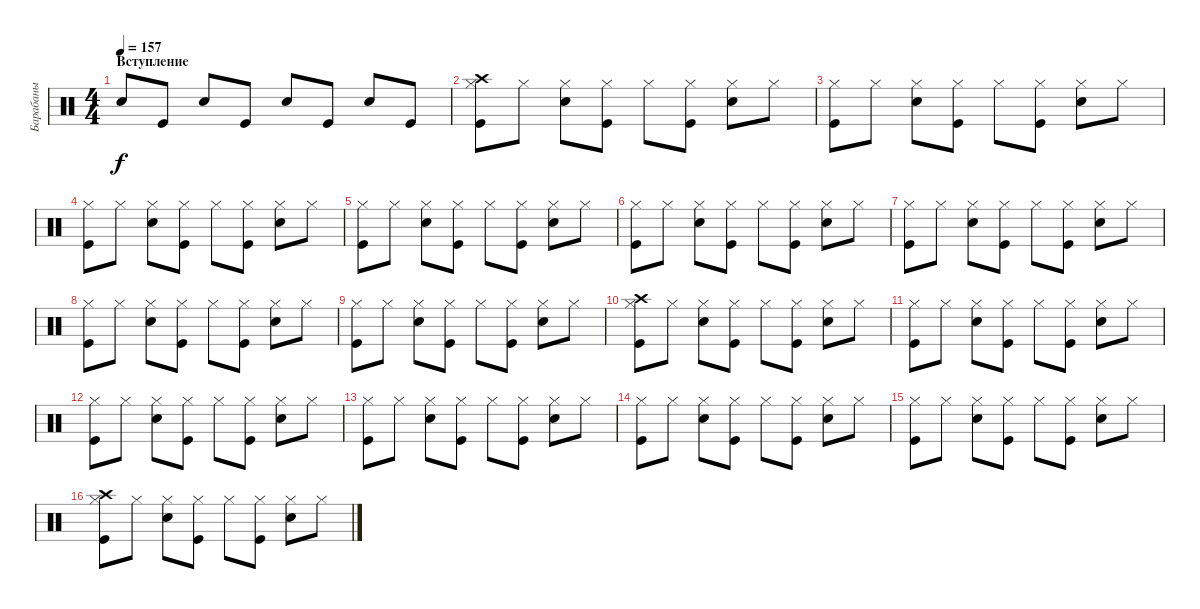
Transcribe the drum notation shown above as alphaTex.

\track ("Барабаны" "Барабаны") {instrument percussion}
\staff {score}
\articulation defaults
\ts (4 4)
\section ("" "Вступление")
\tempo 157
\clef neutral
\ks c "Snare (hit) 2".8{dy f} "Kick (hit)".8 "Snare (hit) 2".8 "Kick (hit)".8 "Snare (hit) 2".8 "Kick (hit)".8 "Snare (hit) 2".8 "Kick (hit)".8
|
("Kick (hit)" "Hi-Hat (closed)" "Crash high (hit)").8 "Hi-Hat (closed)".8 ("Snare (hit) 2" "Hi-Hat (closed)").8 ("Kick (hit)" "Hi-Hat (closed)").8 "Hi-Hat (closed)".8 ("Kick (hit)" "Hi-Hat (closed)").8 ("Snare (hit) 2" "Hi-Hat (closed)").8 "Hi-Hat (closed)".8 |
("Kick (hit)" "Hi-Hat (closed)").8 "Hi-Hat (closed)".8 ("Snare (hit) 2" "Hi-Hat (closed)").8 ("Kick (hit)" "Hi-Hat (closed)").8 "Hi-Hat (closed)".8 ("Kick (hit)" "Hi-Hat (closed)").8 ("Snare (hit) 2" "Hi-Hat (closed)").8 "Hi-Hat (closed)".8 |
("Kick (hit)" "Hi-Hat (closed)").8 "Hi-Hat (closed)".8 ("Snare (hit) 2" "Hi-Hat (closed)").8 ("Kick (hit)" "Hi-Hat (closed)").8 "Hi-Hat (closed)".8 ("Kick (hit)" "Hi-Hat (closed)").8 ("Snare (hit) 2" "Hi-Hat (closed)").8 "Hi-Hat (closed)".8 |
("Kick (hit)" "Hi-Hat (closed)").8 "Hi-Hat (closed)".8 ("Snare (hit) 2" "Hi-Hat (closed)").8 ("Kick (hit)" "Hi-Hat (closed)").8 "Hi-Hat (closed)".8 ("Kick (hit)" "Hi-Hat (closed)").8 ("Snare (hit) 2" "Hi-Hat (closed)").8 "Hi-Hat (closed)".8 |
("Kick (hit)" "Hi-Hat (closed)").8 "Hi-Hat (closed)".8 ("Snare (hit) 2" "Hi-Hat (closed)").8 ("Kick (hit)" "Hi-Hat (closed)").8 "Hi-Hat (closed)".8 ("Kick (hit)" "Hi-Hat (closed)").8 ("Snare (hit) 2" "Hi-Hat (closed)").8 "Hi-Hat (closed)".8 |
("Kick (hit)" "Hi-Hat (closed)").8 "Hi-Hat (closed)".8 ("Snare (hit) 2" "Hi-Hat (closed)").8 ("Kick (hit)" "Hi-Hat (closed)").8 "Hi-Hat (closed)".8 ("Kick (hit)" "Hi-Hat (closed)").8 ("Snare (hit) 2" "Hi-Hat (closed)").8 "Hi-Hat (closed)".8 |
("Kick (hit)" "Hi-Hat (closed)").8 "Hi-Hat (closed)".8 ("Snare (hit) 2" "Hi-Hat (closed)").8 ("Kick (hit)" "Hi-Hat (closed)").8 "Hi-Hat (closed)".8 ("Kick (hit)" "Hi-Hat (closed)").8 ("Snare (hit) 2" "Hi-Hat (closed)").8 "Hi-Hat (closed)".8 |
("Kick (hit)" "Hi-Hat (closed)").8 "Hi-Hat (closed)".8 ("Snare (hit) 2" "Hi-Hat (closed)").8 ("Kick (hit)" "Hi-Hat (closed)").8 "Hi-Hat (closed)".8 ("Kick (hit)" "Hi-Hat (closed)").8 ("Snare (hit) 2" "Hi-Hat (closed)").8 "Hi-Hat (closed)".8 |
("Kick (hit)" "Hi-Hat (closed)" "Crash high (hit)").8 "Hi-Hat (closed)".8 ("Snare (hit) 2" "Hi-Hat (closed)").8 ("Kick (hit)" "Hi-Hat (closed)").8 "Hi-Hat (closed)".8 ("Kick (hit)" "Hi-Hat (closed)").8 ("Snare (hit) 2" "Hi-Hat (closed)").8 "Hi-Hat (closed)".8 |
("Kick (hit)" "Hi-Hat (closed)").8 "Hi-Hat (closed)".8 ("Snare (hit) 2" "Hi-Hat (closed)").8 ("Kick (hit)" "Hi-Hat (closed)").8 "Hi-Hat (closed)".8 ("Kick (hit)" "Hi-Hat (closed)").8 ("Snare (hit) 2" "Hi-Hat (closed)").8 "Hi-Hat (closed)".8 |
("Kick (hit)" "Hi-Hat (closed)").8 "Hi-Hat (closed)".8 ("Snare (hit) 2" "Hi-Hat (closed)").8 ("Kick (hit)" "Hi-Hat (closed)").8 "Hi-Hat (closed)".8 ("Kick (hit)" "Hi-Hat (closed)").8 ("Snare (hit) 2" "Hi-Hat (closed)").8 "Hi-Hat (closed)".8 |
("Kick (hit)" "Hi-Hat (closed)").8 "Hi-Hat (closed)".8 ("Snare (hit) 2" "Hi-Hat (closed)").8 ("Kick (hit)" "Hi-Hat (closed)").8 "Hi-Hat (closed)".8 ("Kick (hit)" "Hi-Hat (closed)").8 ("Snare (hit) 2" "Hi-Hat (closed)").8 "Hi-Hat (closed)".8 |
("Kick (hit)" "Hi-Hat (closed)").8 "Hi-Hat (closed)".8 ("Snare (hit) 2" "Hi-Hat (closed)").8 ("Kick (hit)" "Hi-Hat (closed)").8 "Hi-Hat (closed)".8 ("Kick (hit)" "Hi-Hat (closed)").8 ("Snare (hit) 2" "Hi-Hat (closed)").8 "Hi-Hat (closed)".8 |
("Kick (hit)" "Hi-Hat (closed)").8 "Hi-Hat (closed)".8 ("Snare (hit) 2" "Hi-Hat (closed)").8 ("Kick (hit)" "Hi-Hat (closed)").8 "Hi-Hat (closed)".8 ("Kick (hit)" "Hi-Hat (closed)").8 ("Snare (hit) 2" "Hi-Hat (closed)").8 "Hi-Hat (closed)".8 |
("Kick (hit)" "Hi-Hat (closed)" "Crash high (hit)").8 "Hi-Hat (closed)".8 ("Snare (hit) 2" "Hi-Hat (closed)").8 ("Kick (hit)" "Hi-Hat (closed)").8 "Hi-Hat (closed)".8 ("Kick (hit)" "Hi-Hat (closed)").8 ("Snare (hit) 2" "Hi-Hat (closed)").8 "Hi-Hat (closed)".8
